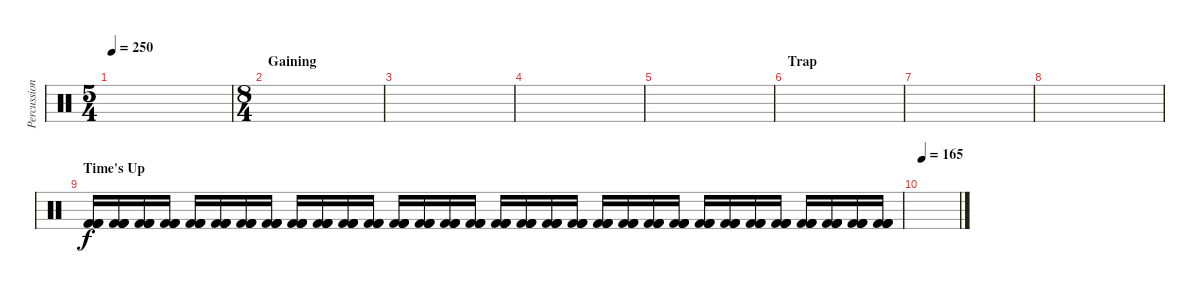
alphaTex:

\track ("Percussion" "Percussion") {instrument percussion}
\staff {score}
\articulation defaults
\ts (5 4)
\tempo 250
\clef neutral
\ks c
|
\ts (8 4)
\section ("" "Gaining")
|
|
|
|
\section ("" "Trap")
|
|
|
\section ("" "Time's Up")
("Kick (hit) 2" "Kick (hit) 2" "Kick (hit) 2" "Kick (hit) 2").16 ("Kick (hit) 2" "Kick (hit) 2" "Kick (hit) 2" "Kick (hit) 2").16 ("Kick (hit) 2" "Kick (hit) 2" "Kick (hit) 2" "Kick (hit) 2").16 ("Kick (hit) 2" "Kick (hit) 2" "Kick (hit) 2" "Kick (hit) 2").16 ("Kick (hit) 2" "Kick (hit) 2" "Kick (hit) 2" "Kick (hit) 2").16 ("Kick (hit) 2" "Kick (hit) 2" "Kick (hit) 2" "Kick (hit) 2").16 ("Kick (hit) 2" "Kick (hit) 2" "Kick (hit) 2" "Kick (hit) 2").16 ("Kick (hit) 2" "Kick (hit) 2" "Kick (hit) 2" "Kick (hit) 2").16 ("Kick (hit) 2" "Kick (hit) 2" "Kick (hit) 2" "Kick (hit) 2").16 ("Kick (hit) 2" "Kick (hit) 2" "Kick (hit) 2" "Kick (hit) 2").16 ("Kick (hit) 2" "Kick (hit) 2" "Kick (hit) 2" "Kick (hit) 2").16 ("Kick (hit) 2" "Kick (hit) 2" "Kick (hit) 2" "Kick (hit) 2").16 ("Kick (hit) 2" "Kick (hit) 2" "Kick (hit) 2" "Kick (hit) 2").16 ("Kick (hit) 2" "Kick (hit) 2" "Kick (hit) 2" "Kick (hit) 2").16 ("Kick (hit) 2" "Kick (hit) 2" "Kick (hit) 2" "Kick (hit) 2").16 ("Kick (hit) 2" "Kick (hit) 2" "Kick (hit) 2" "Kick (hit) 2").16 ("Kick (hit) 2" "Kick (hit) 2" "Kick (hit) 2" "Kick (hit) 2").16 ("Kick (hit) 2" "Kick (hit) 2" "Kick (hit) 2" "Kick (hit) 2").16 ("Kick (hit) 2" "Kick (hit) 2" "Kick (hit) 2" "Kick (hit) 2").16 ("Kick (hit) 2" "Kick (hit) 2" "Kick (hit) 2" "Kick (hit) 2").16 ("Kick (hit) 2" "Kick (hit) 2" "Kick (hit) 2" "Kick (hit) 2").16 ("Kick (hit) 2" "Kick (hit) 2" "Kick (hit) 2" "Kick (hit) 2").16 ("Kick (hit) 2" "Kick (hit) 2" "Kick (hit) 2" "Kick (hit) 2").16 ("Kick (hit) 2" "Kick (hit) 2" "Kick (hit) 2" "Kick (hit) 2").16 ("Kick (hit) 2" "Kick (hit) 2" "Kick (hit) 2" "Kick (hit) 2").16 ("Kick (hit) 2" "Kick (hit) 2" "Kick (hit) 2" "Kick (hit) 2").16 ("Kick (hit) 2" "Kick (hit) 2" "Kick (hit) 2" "Kick (hit) 2").16 ("Kick (hit) 2" "Kick (hit) 2" "Kick (hit) 2" "Kick (hit) 2").16 ("Kick (hit) 2" "Kick (hit) 2" "Kick (hit) 2" "Kick (hit) 2").16 ("Kick (hit) 2" "Kick (hit) 2" "Kick (hit) 2" "Kick (hit) 2").16 ("Kick (hit) 2" "Kick (hit) 2" "Kick (hit) 2" "Kick (hit) 2").16 ("Kick (hit) 2" "Kick (hit) 2" "Kick (hit) 2" "Kick (hit) 2").16 |
\tempo 165
